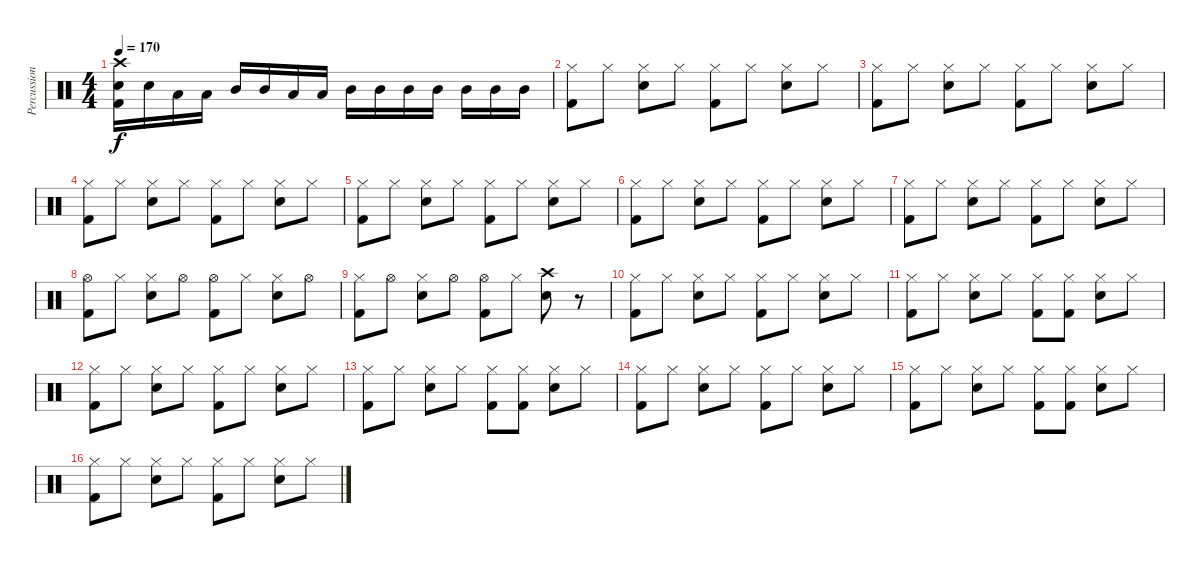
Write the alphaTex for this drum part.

\track ("Percussion" "Percussion") {instrument percussion}
\staff {score}
\articulation defaults
\ts (4 4)
\tempo 170
\clef neutral
\ks c
("Crash high (hit)" "Snare (hit) 2" "Kick (hit) 2").16{dy f} "Snare (hit) 2".16 "Low Tom (hit)".16 "Low Tom (hit)".16 "Mid Tom (hit)".16 "Mid Tom (hit)".16 "Low Tom (hit)".16 "Low Tom (hit)".16 "Mid Tom (hit)".16 "Mid Tom (hit)".16 "Mid Tom (hit)".16 "Mid Tom (hit)".16 "Mid Tom (hit)".16 "Mid Tom (hit)".16 "Mid Tom (hit)".16 |
("Hi-Hat (closed)" "Kick (hit) 2").8 "Hi-Hat (closed)".8 ("Hi-Hat (closed)" "Snare (hit) 2").8 "Hi-Hat (closed)".8 ("Hi-Hat (closed)" "Kick (hit) 2").8 "Hi-Hat (closed)".8 ("Hi-Hat (closed)" "Snare (hit) 2").8 "Hi-Hat (closed)".8 |
("Hi-Hat (closed)" "Kick (hit) 2").8 "Hi-Hat (closed)".8 ("Hi-Hat (closed)" "Snare (hit) 2").8 "Hi-Hat (closed)".8 ("Hi-Hat (closed)" "Kick (hit) 2").8 "Hi-Hat (closed)".8 ("Hi-Hat (closed)" "Snare (hit) 2").8 "Hi-Hat (closed)".8 |
("Hi-Hat (closed)" "Kick (hit) 2").8 "Hi-Hat (closed)".8 ("Hi-Hat (closed)" "Snare (hit) 2").8 "Hi-Hat (closed)".8 ("Hi-Hat (closed)" "Kick (hit) 2").8 "Hi-Hat (closed)".8 ("Hi-Hat (closed)" "Snare (hit) 2").8 "Hi-Hat (closed)".8 |
("Hi-Hat (closed)" "Kick (hit) 2").8 "Hi-Hat (closed)".8 ("Hi-Hat (closed)" "Snare (hit) 2").8 "Hi-Hat (closed)".8 ("Hi-Hat (closed)" "Kick (hit) 2").8 "Hi-Hat (closed)".8 ("Hi-Hat (closed)" "Snare (hit) 2").8 "Hi-Hat (closed)".8 |
("Hi-Hat (closed)" "Kick (hit) 2").8 "Hi-Hat (closed)".8 ("Hi-Hat (closed)" "Snare (hit) 2").8 "Hi-Hat (closed)".8 ("Hi-Hat (closed)" "Kick (hit) 2").8 "Hi-Hat (closed)".8 ("Hi-Hat (closed)" "Snare (hit) 2").8 "Hi-Hat (closed)".8 |
("Hi-Hat (closed)" "Kick (hit) 2").8 "Hi-Hat (closed)".8 ("Hi-Hat (closed)" "Snare (hit) 2").8 "Hi-Hat (closed)".8 ("Hi-Hat (closed)" "Kick (hit) 2").8 "Hi-Hat (closed)".8 ("Hi-Hat (closed)" "Snare (hit) 2").8 "Hi-Hat (closed)".8 |
("Hi-Hat (open)" "Kick (hit) 2").8 "Hi-Hat (closed)".8 ("Hi-Hat (closed)" "Snare (hit) 2").8 "Hi-Hat (open)".8 ("Hi-Hat (open)" "Kick (hit) 2").8 "Hi-Hat (closed)".8 ("Hi-Hat (closed)" "Snare (hit) 2").8 "Hi-Hat (open)".8 |
("Hi-Hat (closed)" "Kick (hit) 2").8 "Hi-Hat (open)".8 ("Hi-Hat (closed)" "Snare (hit) 2").8 "Hi-Hat (open)".8 ("Hi-Hat (open)" "Kick (hit) 2").8 "Hi-Hat (closed)".8 ("Crash high (hit)" "Snare (hit) 2").8 r.8 |
("Hi-Hat (closed)" "Kick (hit) 2").8 "Hi-Hat (closed)".8 ("Hi-Hat (closed)" "Snare (hit) 2").8 "Hi-Hat (closed)".8 ("Hi-Hat (closed)" "Kick (hit) 2").8 "Hi-Hat (closed)".8 ("Hi-Hat (closed)" "Snare (hit) 2").8 "Hi-Hat (closed)".8 |
("Hi-Hat (closed)" "Kick (hit) 2").8 "Hi-Hat (closed)".8 ("Hi-Hat (closed)" "Snare (hit) 2").8 "Hi-Hat (closed)".8 ("Hi-Hat (closed)" "Kick (hit) 2").8 ("Hi-Hat (closed)" "Kick (hit) 2").8 ("Hi-Hat (closed)" "Snare (hit) 2").8 "Hi-Hat (closed)".8 |
("Hi-Hat (closed)" "Kick (hit) 2").8 "Hi-Hat (closed)".8 ("Hi-Hat (closed)" "Snare (hit) 2").8 "Hi-Hat (closed)".8 ("Hi-Hat (closed)" "Kick (hit) 2").8 "Hi-Hat (closed)".8 ("Hi-Hat (closed)" "Snare (hit) 2").8 "Hi-Hat (closed)".8 |
("Hi-Hat (closed)" "Kick (hit) 2").8 "Hi-Hat (closed)".8 ("Hi-Hat (closed)" "Snare (hit) 2").8 "Hi-Hat (closed)".8 ("Hi-Hat (closed)" "Kick (hit) 2").8 ("Hi-Hat (closed)" "Kick (hit) 2").8 ("Hi-Hat (closed)" "Snare (hit) 2").8 "Hi-Hat (closed)".8 |
("Hi-Hat (closed)" "Kick (hit) 2").8 "Hi-Hat (closed)".8 ("Hi-Hat (closed)" "Snare (hit) 2").8 "Hi-Hat (closed)".8 ("Hi-Hat (closed)" "Kick (hit) 2").8 "Hi-Hat (closed)".8 ("Hi-Hat (closed)" "Snare (hit) 2").8 "Hi-Hat (closed)".8 |
("Hi-Hat (closed)" "Kick (hit) 2").8 "Hi-Hat (closed)".8 ("Hi-Hat (closed)" "Snare (hit) 2").8 "Hi-Hat (closed)".8 ("Hi-Hat (closed)" "Kick (hit) 2").8 ("Hi-Hat (closed)" "Kick (hit) 2").8 ("Hi-Hat (closed)" "Snare (hit) 2").8 "Hi-Hat (closed)".8 |
("Hi-Hat (closed)" "Kick (hit) 2").8 "Hi-Hat (closed)".8 ("Hi-Hat (closed)" "Snare (hit) 2").8 "Hi-Hat (closed)".8 ("Hi-Hat (closed)" "Kick (hit) 2").8 "Hi-Hat (closed)".8 ("Hi-Hat (closed)" "Snare (hit) 2").8 "Hi-Hat (closed)".8
